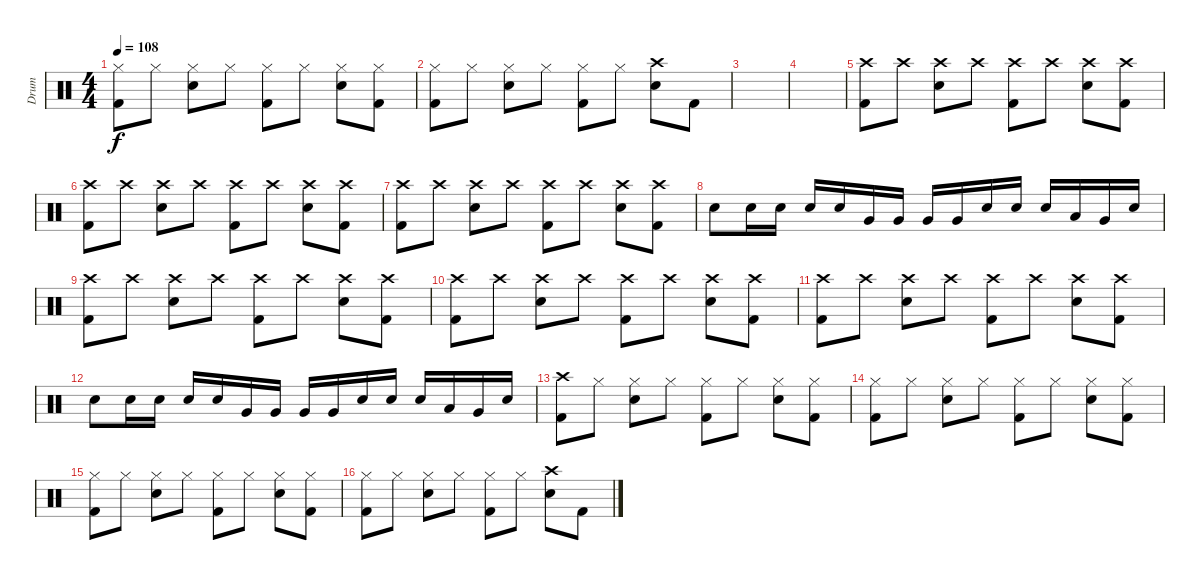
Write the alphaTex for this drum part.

\track ("Drum" "Drum") {instrument percussion}
\staff {score}
\articulation defaults
\ts (4 4)
\tempo 108
\clef neutral
\ks c
("Hi-Hat (closed)" "Kick (hit) 2").8{dy f} "Hi-Hat (closed)".8 ("Hi-Hat (closed)" "Electric Snare (hit)").8 "Hi-Hat (closed)".8 ("Hi-Hat (closed)" "Kick (hit) 2").8 "Hi-Hat (closed)".8 ("Hi-Hat (closed)" "Electric Snare (hit)").8 ("Hi-Hat (closed)" "Kick (hit) 2").8 |
("Hi-Hat (closed)" "Kick (hit) 2").8 "Hi-Hat (closed)".8 ("Hi-Hat (closed)" "Electric Snare (hit)").8 "Hi-Hat (closed)".8 ("Hi-Hat (closed)" "Kick (hit) 2").8 "Hi-Hat (closed)".8 ("Crash high (hit)" "Electric Snare (hit)").8 "Kick (hit) 2".8 |
|
|
("Crash high (hit)" "Kick (hit) 2").8 "Crash high (hit)".8 ("Crash high (hit)" "Electric Snare (hit)").8 "Crash high (hit)".8 ("Crash high (hit)" "Kick (hit) 2").8 "Crash high (hit)".8 ("Crash high (hit)" "Electric Snare (hit)").8 ("Crash high (hit)" "Kick (hit) 2").8 |
("Crash high (hit)" "Kick (hit) 2").8 "Crash high (hit)".8 ("Crash high (hit)" "Electric Snare (hit)").8 "Crash high (hit)".8 ("Crash high (hit)" "Kick (hit) 2").8 "Crash high (hit)".8 ("Crash high (hit)" "Electric Snare (hit)").8 ("Crash high (hit)" "Kick (hit) 2").8 |
("Crash high (hit)" "Kick (hit) 2").8 "Crash high (hit)".8 ("Crash high (hit)" "Electric Snare (hit)").8 "Crash high (hit)".8 ("Crash high (hit)" "Kick (hit) 2").8 "Crash high (hit)".8 ("Crash high (hit)" "Electric Snare (hit)").8 ("Crash high (hit)" "Kick (hit) 2").8 |
"Electric Snare (hit)".8 "Electric Snare (hit)".16 "Electric Snare (hit)".16 "Electric Snare (hit)".16 "Electric Snare (hit)".16 "Very Low Tom (hit)".16 "Very Low Tom (hit)".16 "Very Low Tom (hit)".16 "Very Low Tom (hit)".16 "Electric Snare (hit)".16 "Electric Snare (hit)".16 "Electric Snare (hit)".16 "Low Tom (hit)".16 "Very Low Tom (hit)".16 "Electric Snare (hit)".16 |
("Crash high (hit)" "Kick (hit) 2").8 "Crash high (hit)".8 ("Crash high (hit)" "Electric Snare (hit)").8 "Crash high (hit)".8 ("Crash high (hit)" "Kick (hit) 2").8 "Crash high (hit)".8 ("Crash high (hit)" "Electric Snare (hit)").8 ("Crash high (hit)" "Kick (hit) 2").8 |
("Crash high (hit)" "Kick (hit) 2").8 "Crash high (hit)".8 ("Crash high (hit)" "Electric Snare (hit)").8 "Crash high (hit)".8 ("Crash high (hit)" "Kick (hit) 2").8 "Crash high (hit)".8 ("Crash high (hit)" "Electric Snare (hit)").8 ("Crash high (hit)" "Kick (hit) 2").8 |
("Crash high (hit)" "Kick (hit) 2").8 "Crash high (hit)".8 ("Crash high (hit)" "Electric Snare (hit)").8 "Crash high (hit)".8 ("Crash high (hit)" "Kick (hit) 2").8 "Crash high (hit)".8 ("Crash high (hit)" "Electric Snare (hit)").8 ("Crash high (hit)" "Kick (hit) 2").8 |
"Electric Snare (hit)".8 "Electric Snare (hit)".16 "Electric Snare (hit)".16 "Electric Snare (hit)".16 "Electric Snare (hit)".16 "Very Low Tom (hit)".16 "Very Low Tom (hit)".16 "Very Low Tom (hit)".16 "Very Low Tom (hit)".16 "Electric Snare (hit)".16 "Electric Snare (hit)".16 "Electric Snare (hit)".16 "Low Tom (hit)".16 "Very Low Tom (hit)".16 "Electric Snare (hit)".16 |
("Crash high (hit)" "Kick (hit) 2").8 "Hi-Hat (closed)".8 ("Hi-Hat (closed)" "Electric Snare (hit)").8 "Hi-Hat (closed)".8 ("Hi-Hat (closed)" "Kick (hit) 2").8 "Hi-Hat (closed)".8 ("Hi-Hat (closed)" "Electric Snare (hit)").8 ("Hi-Hat (closed)" "Kick (hit) 2").8 |
("Hi-Hat (closed)" "Kick (hit) 2").8 "Hi-Hat (closed)".8 ("Hi-Hat (closed)" "Electric Snare (hit)").8 "Hi-Hat (closed)".8 ("Hi-Hat (closed)" "Kick (hit) 2").8 "Hi-Hat (closed)".8 ("Hi-Hat (closed)" "Electric Snare (hit)").8 ("Hi-Hat (closed)" "Kick (hit) 2").8 |
("Hi-Hat (closed)" "Kick (hit) 2").8 "Hi-Hat (closed)".8 ("Hi-Hat (closed)" "Electric Snare (hit)").8 "Hi-Hat (closed)".8 ("Hi-Hat (closed)" "Kick (hit) 2").8 "Hi-Hat (closed)".8 ("Hi-Hat (closed)" "Electric Snare (hit)").8 ("Hi-Hat (closed)" "Kick (hit) 2").8 |
("Hi-Hat (closed)" "Kick (hit) 2").8 "Hi-Hat (closed)".8 ("Hi-Hat (closed)" "Electric Snare (hit)").8 "Hi-Hat (closed)".8 ("Hi-Hat (closed)" "Kick (hit) 2").8 "Hi-Hat (closed)".8 ("Crash high (hit)" "Electric Snare (hit)").8 "Kick (hit) 2".8
